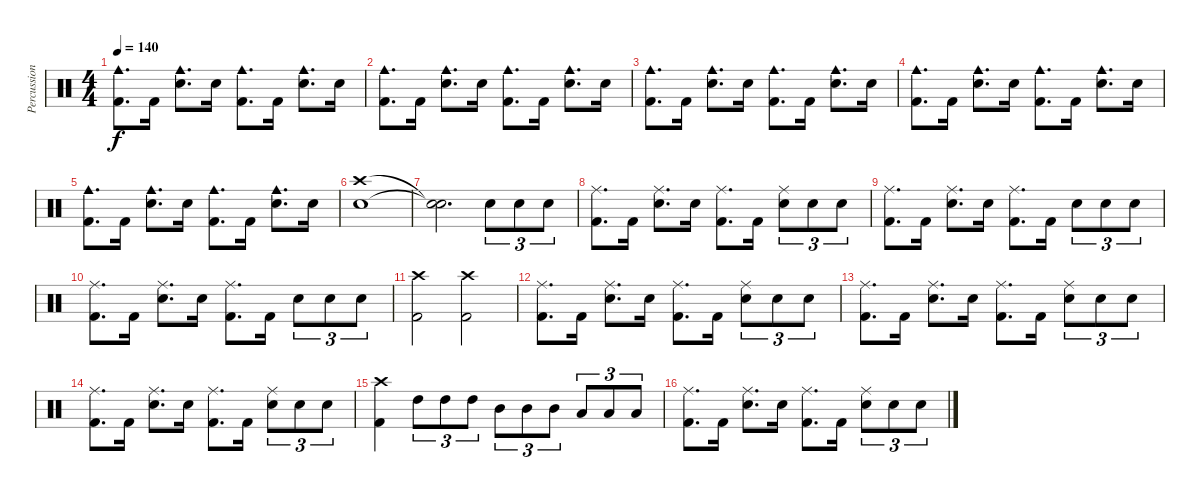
\track ("Percussion" "Percussion") {instrument percussion}
\staff {score}
\articulation defaults
\ts (4 4)
\tempo 140
\clef neutral
\ks c
("Kick (hit) 2" "Cowbell medium (hit)").8{d dy f} "Kick (hit) 2".16 ("Electric Snare (hit)" "Cowbell medium (hit)").8{d} "Electric Snare (hit)".16 ("Kick (hit) 2" "Cowbell medium (hit)").8{d} "Kick (hit) 2".16 ("Electric Snare (hit)" "Cowbell medium (hit)").8{d} "Electric Snare (hit)".16 |
("Kick (hit) 2" "Cowbell medium (hit)").8{d} "Kick (hit) 2".16 ("Electric Snare (hit)" "Cowbell medium (hit)").8{d} "Electric Snare (hit)".16 ("Kick (hit) 2" "Cowbell medium (hit)").8{d} "Kick (hit) 2".16 ("Electric Snare (hit)" "Cowbell medium (hit)").8{d} "Electric Snare (hit)".16 |
("Kick (hit) 2" "Cowbell medium (hit)").8{d} "Kick (hit) 2".16 ("Electric Snare (hit)" "Cowbell medium (hit)").8{d} "Electric Snare (hit)".16 ("Kick (hit) 2" "Cowbell medium (hit)").8{d} "Kick (hit) 2".16 ("Electric Snare (hit)" "Cowbell medium (hit)").8{d} "Electric Snare (hit)".16 |
("Kick (hit) 2" "Cowbell medium (hit)").8{d} "Kick (hit) 2".16 ("Electric Snare (hit)" "Cowbell medium (hit)").8{d} "Electric Snare (hit)".16 ("Kick (hit) 2" "Cowbell medium (hit)").8{d} "Kick (hit) 2".16 ("Electric Snare (hit)" "Cowbell medium (hit)").8{d} "Electric Snare (hit)".16 |
("Kick (hit) 2" "Cowbell medium (hit)").8{d} "Kick (hit) 2".16 ("Electric Snare (hit)" "Cowbell medium (hit)").8{d} "Electric Snare (hit)".16 ("Kick (hit) 2" "Cowbell medium (hit)").8{d} "Kick (hit) 2".16 ("Electric Snare (hit)" "Cowbell medium (hit)").8{d} "Electric Snare (hit)".16 |
("Electric Snare (hit)" "Crash high (hit)").1 |
("Snare (hit)"{t} "Snare (hit)"{t}).2{d} "Electric Snare (hit)".8{tu (3 2)} "Electric Snare (hit)".8{tu (3 2)} "Electric Snare (hit)".8{tu (3 2)} |
("Kick (hit) 2" "Ride (middle)").8{d} "Kick (hit) 2".16 ("Electric Snare (hit)" "Ride (middle)").8{d} "Electric Snare (hit)".16 ("Kick (hit) 2" "Ride (middle)").8{d} "Kick (hit) 2".16 ("Electric Snare (hit)" "Ride (middle)").8{tu (3 2)} "Electric Snare (hit)".8{tu (3 2)} "Electric Snare (hit)".8{tu (3 2)} |
("Kick (hit) 2" "Ride (middle)").8{d} "Kick (hit) 2".16 ("Electric Snare (hit)" "Ride (middle)").8{d} "Electric Snare (hit)".16 ("Kick (hit) 2" "Ride (middle)").8{d} "Kick (hit) 2".16 "Electric Snare (hit)".8{tu (3 2)} "Electric Snare (hit)".8{tu (3 2)} "Electric Snare (hit)".8{tu (3 2)} |
("Kick (hit) 2" "Ride (middle)").8{d} "Kick (hit) 2".16 ("Electric Snare (hit)" "Ride (middle)").8{d} "Electric Snare (hit)".16 ("Kick (hit) 2" "Ride (middle)").8{d} "Kick (hit) 2".16 "Electric Snare (hit)".8{tu (3 2)} "Electric Snare (hit)".8{tu (3 2)} "Electric Snare (hit)".8{tu (3 2)} |
("Kick (hit) 2" "Crash high (hit)").2 ("Kick (hit) 2" "Crash high (hit)").2 |
("Kick (hit) 2" "Ride (middle)").8{d} "Kick (hit) 2".16 ("Electric Snare (hit)" "Ride (middle)").8{d} "Electric Snare (hit)".16 ("Kick (hit) 2" "Ride (middle)").8{d} "Kick (hit) 2".16 ("Electric Snare (hit)" "Ride (middle)").8{tu (3 2)} "Electric Snare (hit)".8{tu (3 2)} "Electric Snare (hit)".8{tu (3 2)} |
("Kick (hit) 2" "Ride (middle)").8{d} "Kick (hit) 2".16 ("Electric Snare (hit)" "Ride (middle)").8{d} "Electric Snare (hit)".16 ("Kick (hit) 2" "Ride (middle)").8{d} "Kick (hit) 2".16 ("Electric Snare (hit)" "Ride (middle)").8{tu (3 2)} "Electric Snare (hit)".8{tu (3 2)} "Electric Snare (hit)".8{tu (3 2)} |
("Kick (hit) 2" "Ride (middle)").8{d} "Kick (hit) 2".16 ("Electric Snare (hit)" "Ride (middle)").8{d} "Electric Snare (hit)".16 ("Kick (hit) 2" "Ride (middle)").8{d} "Kick (hit) 2".16 ("Electric Snare (hit)" "Ride (middle)").8{tu (3 2)} "Electric Snare (hit)".8{tu (3 2)} "Electric Snare (hit)".8{tu (3 2)} |
("Kick (hit) 2" "Crash high (hit)").4 "High Tom (hit)".8{tu (3 2)} "High Tom (hit)".8{tu (3 2)} "High Tom (hit)".8{tu (3 2)} "Mid Tom (hit)".8{tu (3 2)} "Mid Tom (hit)".8{tu (3 2)} "Mid Tom (hit)".8{tu (3 2)} "Low Tom (hit)".8{tu (3 2)} "Low Tom (hit)".8{tu (3 2)} "Low Tom (hit)".8{tu (3 2)} |
("Kick (hit) 2" "Ride (middle)").8{d} "Kick (hit) 2".16 ("Electric Snare (hit)" "Ride (middle)").8{d} "Electric Snare (hit)".16 ("Kick (hit) 2" "Ride (middle)").8{d} "Kick (hit) 2".16 ("Electric Snare (hit)" "Ride (middle)").8{tu (3 2)} "Electric Snare (hit)".8{tu (3 2)} "Electric Snare (hit)".8{tu (3 2)}
